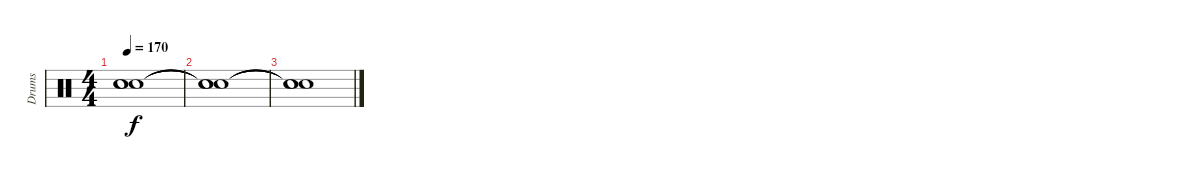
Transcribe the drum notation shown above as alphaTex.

\track ("Drums" "Drums") {instrument percussion}
\staff {score}
\articulation defaults
\ts (4 4)
\tempo 170
\clef neutral
\ks c
("Snare (hit)"{t} "Snare (hit)"{t} "Snare (hit)"{t}).1{dy f} |
("Snare (hit)"{t} "Snare (hit)"{t} "Snare (hit)"{t}).1 |
("Snare (hit)"{t} "Snare (hit)"{t} "Snare (hit)"{t}).1
